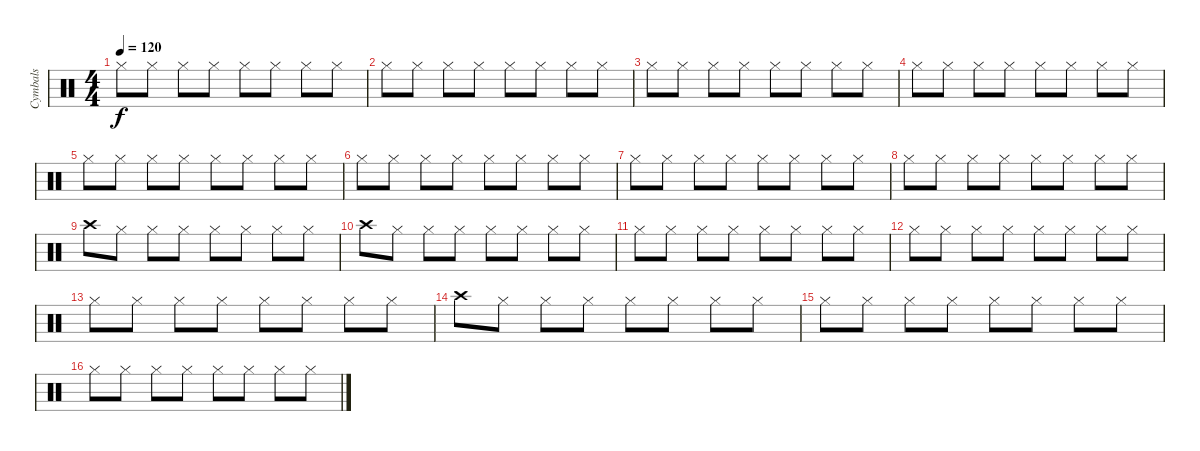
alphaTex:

\track ("Cymbals" "Cymbals") {instrument percussion}
\staff {score}
\articulation defaults
\ts (4 4)
\tempo 120
\clef neutral
\ks c "Hi-Hat (closed)".8{dy f} "Hi-Hat (closed)".8 "Hi-Hat (closed)".8 "Hi-Hat (closed)".8 "Hi-Hat (closed)".8 "Hi-Hat (closed)".8 "Hi-Hat (closed)".8 "Hi-Hat (closed)".8
|
"Hi-Hat (closed)".8 "Hi-Hat (closed)".8 "Hi-Hat (closed)".8 "Hi-Hat (closed)".8 "Hi-Hat (closed)".8 "Hi-Hat (closed)".8 "Hi-Hat (closed)".8 "Hi-Hat (closed)".8 |
"Hi-Hat (closed)".8 "Hi-Hat (closed)".8 "Hi-Hat (closed)".8 "Hi-Hat (closed)".8 "Hi-Hat (closed)".8 "Hi-Hat (closed)".8 "Hi-Hat (closed)".8 "Hi-Hat (closed)".8 |
"Hi-Hat (closed)".8 "Hi-Hat (closed)".8 "Hi-Hat (closed)".8 "Hi-Hat (closed)".8 "Hi-Hat (closed)".8 "Hi-Hat (closed)".8 "Hi-Hat (closed)".8 "Hi-Hat (closed)".8 |
"Hi-Hat (closed)".8 "Hi-Hat (closed)".8 "Hi-Hat (closed)".8 "Hi-Hat (closed)".8 "Hi-Hat (closed)".8 "Hi-Hat (closed)".8 "Hi-Hat (closed)".8 "Hi-Hat (closed)".8 |
"Hi-Hat (closed)".8 "Hi-Hat (closed)".8 "Hi-Hat (closed)".8 "Hi-Hat (closed)".8 "Hi-Hat (closed)".8 "Hi-Hat (closed)".8 "Hi-Hat (closed)".8 "Hi-Hat (closed)".8 |
"Hi-Hat (closed)".8 "Hi-Hat (closed)".8 "Hi-Hat (closed)".8 "Hi-Hat (closed)".8 "Hi-Hat (closed)".8 "Hi-Hat (closed)".8 "Hi-Hat (closed)".8 "Hi-Hat (closed)".8 |
"Hi-Hat (closed)".8 "Hi-Hat (closed)".8 "Hi-Hat (closed)".8 "Hi-Hat (closed)".8 "Hi-Hat (closed)".8 "Hi-Hat (closed)".8 "Hi-Hat (closed)".8 "Hi-Hat (closed)".8 |
"Crash high (hit)".8 "Hi-Hat (closed)".8 "Hi-Hat (closed)".8 "Hi-Hat (closed)".8 "Hi-Hat (closed)".8 "Hi-Hat (closed)".8 "Hi-Hat (closed)".8 "Hi-Hat (closed)".8 |
"Crash high (hit)".8 "Hi-Hat (closed)".8 "Hi-Hat (closed)".8 "Hi-Hat (closed)".8 "Hi-Hat (closed)".8 "Hi-Hat (closed)".8 "Hi-Hat (closed)".8 "Hi-Hat (closed)".8 |
"Hi-Hat (closed)".8 "Hi-Hat (closed)".8 "Hi-Hat (closed)".8 "Hi-Hat (closed)".8 "Hi-Hat (closed)".8 "Hi-Hat (closed)".8 "Hi-Hat (closed)".8 "Hi-Hat (closed)".8 |
"Hi-Hat (closed)".8 "Hi-Hat (closed)".8 "Hi-Hat (closed)".8 "Hi-Hat (closed)".8 "Hi-Hat (closed)".8 "Hi-Hat (closed)".8 "Hi-Hat (closed)".8 "Hi-Hat (closed)".8 |
"Hi-Hat (closed)".8 "Hi-Hat (closed)".8 "Hi-Hat (closed)".8 "Hi-Hat (closed)".8 "Hi-Hat (closed)".8 "Hi-Hat (closed)".8 "Hi-Hat (closed)".8 "Hi-Hat (closed)".8 |
"Crash high (hit)".8 "Hi-Hat (closed)".8 "Hi-Hat (closed)".8 "Hi-Hat (closed)".8 "Hi-Hat (closed)".8 "Hi-Hat (closed)".8 "Hi-Hat (closed)".8 "Hi-Hat (closed)".8 |
"Hi-Hat (closed)".8 "Hi-Hat (closed)".8 "Hi-Hat (closed)".8 "Hi-Hat (closed)".8 "Hi-Hat (closed)".8 "Hi-Hat (closed)".8 "Hi-Hat (closed)".8 "Hi-Hat (closed)".8 |
"Hi-Hat (closed)".8 "Hi-Hat (closed)".8 "Hi-Hat (closed)".8 "Hi-Hat (closed)".8 "Hi-Hat (closed)".8 "Hi-Hat (closed)".8 "Hi-Hat (closed)".8 "Hi-Hat (closed)".8
